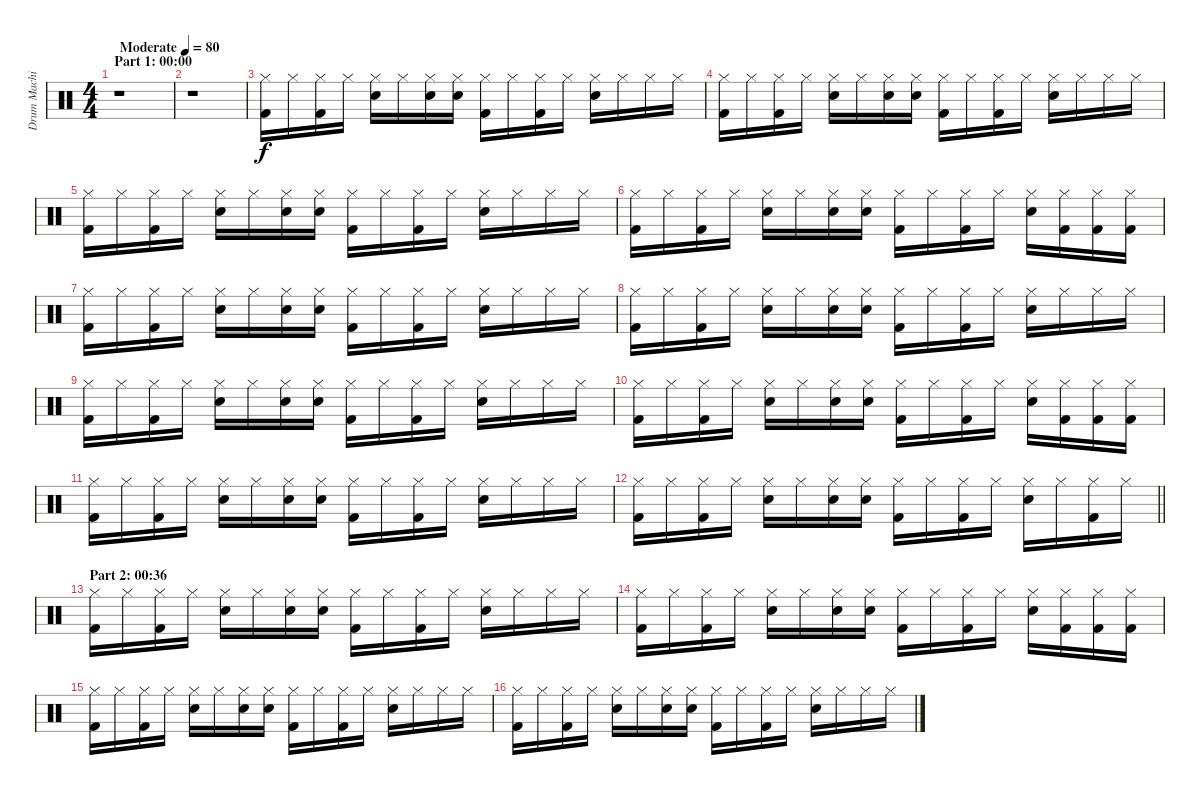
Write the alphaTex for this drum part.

\track ("Drum Machine" "Drum Machi") {instrument percussion}
\staff {score}
\articulation defaults
\ts (4 4)
\section ("" "Part 1: 00:00")
\tempo (80 "Moderate")
\clef neutral
\ks c
r.1{dy f} |
r.1 |
("Hi-Hat (closed)" "Kick (hit) 2").16 "Hi-Hat (closed)".16 ("Hi-Hat (closed)" "Kick (hit) 2").16 "Hi-Hat (closed)".16 ("Hi-Hat (closed)" "Electric Snare (hit)").16 "Hi-Hat (closed)".16 ("Hi-Hat (closed)" "Electric Snare (hit)").16 ("Hi-Hat (closed)" "Electric Snare (hit)").16 ("Hi-Hat (closed)" "Kick (hit) 2").16 "Hi-Hat (closed)".16 ("Hi-Hat (closed)" "Kick (hit) 2").16 "Hi-Hat (closed)".16 ("Hi-Hat (closed)" "Electric Snare (hit)").16 "Hi-Hat (closed)".16 "Hi-Hat (closed)".16 "Hi-Hat (closed)".16 |
("Hi-Hat (closed)" "Kick (hit) 2").16 "Hi-Hat (closed)".16 ("Hi-Hat (closed)" "Kick (hit) 2").16 "Hi-Hat (closed)".16 ("Hi-Hat (closed)" "Electric Snare (hit)").16 "Hi-Hat (closed)".16 ("Hi-Hat (closed)" "Electric Snare (hit)").16 ("Hi-Hat (closed)" "Electric Snare (hit)").16 ("Hi-Hat (closed)" "Kick (hit) 2").16 "Hi-Hat (closed)".16 ("Hi-Hat (closed)" "Kick (hit) 2").16 "Hi-Hat (closed)".16 ("Hi-Hat (closed)" "Electric Snare (hit)").16 "Hi-Hat (closed)".16 "Hi-Hat (closed)".16 "Hi-Hat (closed)".16 |
("Hi-Hat (closed)" "Kick (hit) 2").16 "Hi-Hat (closed)".16 ("Hi-Hat (closed)" "Kick (hit) 2").16 "Hi-Hat (closed)".16 ("Hi-Hat (closed)" "Electric Snare (hit)").16 "Hi-Hat (closed)".16 ("Hi-Hat (closed)" "Electric Snare (hit)").16 ("Hi-Hat (closed)" "Electric Snare (hit)").16 ("Hi-Hat (closed)" "Kick (hit) 2").16 "Hi-Hat (closed)".16 ("Hi-Hat (closed)" "Kick (hit) 2").16 "Hi-Hat (closed)".16 ("Hi-Hat (closed)" "Electric Snare (hit)").16 "Hi-Hat (closed)".16 "Hi-Hat (closed)".16 "Hi-Hat (closed)".16 |
("Hi-Hat (closed)" "Kick (hit) 2").16 "Hi-Hat (closed)".16 ("Hi-Hat (closed)" "Kick (hit) 2").16 "Hi-Hat (closed)".16 ("Hi-Hat (closed)" "Electric Snare (hit)").16 "Hi-Hat (closed)".16 ("Hi-Hat (closed)" "Electric Snare (hit)").16 ("Hi-Hat (closed)" "Electric Snare (hit)").16 ("Hi-Hat (closed)" "Kick (hit) 2").16 "Hi-Hat (closed)".16 ("Hi-Hat (closed)" "Kick (hit) 2").16 "Hi-Hat (closed)".16 ("Hi-Hat (closed)" "Electric Snare (hit)").16 ("Hi-Hat (closed)" "Kick (hit) 2").16 ("Hi-Hat (closed)" "Kick (hit) 2").16 ("Hi-Hat (closed)" "Kick (hit) 2").16 |
("Hi-Hat (closed)" "Kick (hit) 2").16 "Hi-Hat (closed)".16 ("Hi-Hat (closed)" "Kick (hit) 2").16 "Hi-Hat (closed)".16 ("Hi-Hat (closed)" "Electric Snare (hit)").16 "Hi-Hat (closed)".16 ("Hi-Hat (closed)" "Electric Snare (hit)").16 ("Hi-Hat (closed)" "Electric Snare (hit)").16 ("Hi-Hat (closed)" "Kick (hit) 2").16 "Hi-Hat (closed)".16 ("Hi-Hat (closed)" "Kick (hit) 2").16 "Hi-Hat (closed)".16 ("Hi-Hat (closed)" "Electric Snare (hit)").16 "Hi-Hat (closed)".16 "Hi-Hat (closed)".16 "Hi-Hat (closed)".16 |
("Hi-Hat (closed)" "Kick (hit) 2").16 "Hi-Hat (closed)".16 ("Hi-Hat (closed)" "Kick (hit) 2").16 "Hi-Hat (closed)".16 ("Hi-Hat (closed)" "Electric Snare (hit)").16 "Hi-Hat (closed)".16 ("Hi-Hat (closed)" "Electric Snare (hit)").16 ("Hi-Hat (closed)" "Electric Snare (hit)").16 ("Hi-Hat (closed)" "Kick (hit) 2").16 "Hi-Hat (closed)".16 ("Hi-Hat (closed)" "Kick (hit) 2").16 "Hi-Hat (closed)".16 ("Hi-Hat (closed)" "Electric Snare (hit)").16 "Hi-Hat (closed)".16 "Hi-Hat (closed)".16 "Hi-Hat (closed)".16 |
("Hi-Hat (closed)" "Kick (hit) 2").16 "Hi-Hat (closed)".16 ("Hi-Hat (closed)" "Kick (hit) 2").16 "Hi-Hat (closed)".16 ("Hi-Hat (closed)" "Electric Snare (hit)").16 "Hi-Hat (closed)".16 ("Hi-Hat (closed)" "Electric Snare (hit)").16 ("Hi-Hat (closed)" "Electric Snare (hit)").16 ("Hi-Hat (closed)" "Kick (hit) 2").16 "Hi-Hat (closed)".16 ("Hi-Hat (closed)" "Kick (hit) 2").16 "Hi-Hat (closed)".16 ("Hi-Hat (closed)" "Electric Snare (hit)").16 "Hi-Hat (closed)".16 "Hi-Hat (closed)".16 "Hi-Hat (closed)".16 |
("Hi-Hat (closed)" "Kick (hit) 2").16 "Hi-Hat (closed)".16 ("Hi-Hat (closed)" "Kick (hit) 2").16 "Hi-Hat (closed)".16 ("Hi-Hat (closed)" "Electric Snare (hit)").16 "Hi-Hat (closed)".16 ("Hi-Hat (closed)" "Electric Snare (hit)").16 ("Hi-Hat (closed)" "Electric Snare (hit)").16 ("Hi-Hat (closed)" "Kick (hit) 2").16 "Hi-Hat (closed)".16 ("Hi-Hat (closed)" "Kick (hit) 2").16 "Hi-Hat (closed)".16 ("Hi-Hat (closed)" "Electric Snare (hit)").16 ("Hi-Hat (closed)" "Kick (hit) 2").16 ("Hi-Hat (closed)" "Kick (hit) 2").16 ("Hi-Hat (closed)" "Kick (hit) 2").16 |
("Hi-Hat (closed)" "Kick (hit) 2").16 "Hi-Hat (closed)".16 ("Hi-Hat (closed)" "Kick (hit) 2").16 "Hi-Hat (closed)".16 ("Hi-Hat (closed)" "Electric Snare (hit)").16 "Hi-Hat (closed)".16 ("Hi-Hat (closed)" "Electric Snare (hit)").16 ("Hi-Hat (closed)" "Electric Snare (hit)").16 ("Hi-Hat (closed)" "Kick (hit) 2").16 "Hi-Hat (closed)".16 ("Hi-Hat (closed)" "Kick (hit) 2").16 "Hi-Hat (closed)".16 ("Hi-Hat (closed)" "Electric Snare (hit)").16 "Hi-Hat (closed)".16 "Hi-Hat (closed)".16 "Hi-Hat (closed)".16 |
\barLineRight lightlight
("Hi-Hat (closed)" "Kick (hit) 2").16 "Hi-Hat (closed)".16 ("Hi-Hat (closed)" "Kick (hit) 2").16 "Hi-Hat (closed)".16 ("Hi-Hat (closed)" "Electric Snare (hit)").16 "Hi-Hat (closed)".16 ("Hi-Hat (closed)" "Electric Snare (hit)").16 ("Hi-Hat (closed)" "Electric Snare (hit)").16 ("Hi-Hat (closed)" "Kick (hit) 2").16 "Hi-Hat (closed)".16 ("Hi-Hat (closed)" "Kick (hit) 2").16 "Hi-Hat (closed)".16 ("Hi-Hat (closed)" "Electric Snare (hit)").16 "Hi-Hat (closed)".16 ("Hi-Hat (closed)" "Kick (hit) 2").16 "Hi-Hat (closed)".16 |
\section ("" "Part 2: 00:36")
("Hi-Hat (closed)" "Kick (hit) 2").16 "Hi-Hat (closed)".16 ("Hi-Hat (closed)" "Kick (hit) 2").16 "Hi-Hat (closed)".16 ("Hi-Hat (closed)" "Electric Snare (hit)").16 "Hi-Hat (closed)".16 ("Hi-Hat (closed)" "Electric Snare (hit)").16 ("Hi-Hat (closed)" "Electric Snare (hit)").16 ("Hi-Hat (closed)" "Kick (hit) 2").16 "Hi-Hat (closed)".16 ("Hi-Hat (closed)" "Kick (hit) 2").16 "Hi-Hat (closed)".16 ("Hi-Hat (closed)" "Electric Snare (hit)").16 "Hi-Hat (closed)".16 "Hi-Hat (closed)".16 "Hi-Hat (closed)".16 |
("Hi-Hat (closed)" "Kick (hit) 2").16 "Hi-Hat (closed)".16 ("Hi-Hat (closed)" "Kick (hit) 2").16 "Hi-Hat (closed)".16 ("Hi-Hat (closed)" "Electric Snare (hit)").16 "Hi-Hat (closed)".16 ("Hi-Hat (closed)" "Electric Snare (hit)").16 ("Hi-Hat (closed)" "Electric Snare (hit)").16 ("Hi-Hat (closed)" "Kick (hit) 2").16 "Hi-Hat (closed)".16 ("Hi-Hat (closed)" "Kick (hit) 2").16 "Hi-Hat (closed)".16 ("Hi-Hat (closed)" "Electric Snare (hit)").16 ("Hi-Hat (closed)" "Kick (hit) 2").16 ("Hi-Hat (closed)" "Kick (hit) 2").16 ("Hi-Hat (closed)" "Kick (hit) 2").16 |
("Hi-Hat (closed)" "Kick (hit) 2").16 "Hi-Hat (closed)".16 ("Hi-Hat (closed)" "Kick (hit) 2").16 "Hi-Hat (closed)".16 ("Hi-Hat (closed)" "Electric Snare (hit)").16 "Hi-Hat (closed)".16 ("Hi-Hat (closed)" "Electric Snare (hit)").16 ("Hi-Hat (closed)" "Electric Snare (hit)").16 ("Hi-Hat (closed)" "Kick (hit) 2").16 "Hi-Hat (closed)".16 ("Hi-Hat (closed)" "Kick (hit) 2").16 "Hi-Hat (closed)".16 ("Hi-Hat (closed)" "Electric Snare (hit)").16 "Hi-Hat (closed)".16 "Hi-Hat (closed)".16 "Hi-Hat (closed)".16 |
("Hi-Hat (closed)" "Kick (hit) 2").16 "Hi-Hat (closed)".16 ("Hi-Hat (closed)" "Kick (hit) 2").16 "Hi-Hat (closed)".16 ("Hi-Hat (closed)" "Electric Snare (hit)").16 "Hi-Hat (closed)".16 ("Hi-Hat (closed)" "Electric Snare (hit)").16 ("Hi-Hat (closed)" "Electric Snare (hit)").16 ("Hi-Hat (closed)" "Kick (hit) 2").16 "Hi-Hat (closed)".16 ("Hi-Hat (closed)" "Kick (hit) 2").16 "Hi-Hat (closed)".16 ("Hi-Hat (closed)" "Electric Snare (hit)").16 "Hi-Hat (closed)".16 "Hi-Hat (closed)".16 "Hi-Hat (closed)".16
